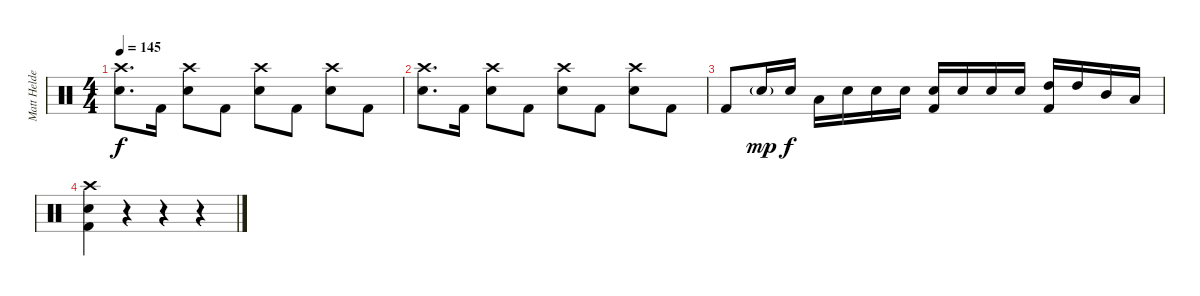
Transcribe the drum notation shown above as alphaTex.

\track ("Matt Helders (Percussion)" "Matt Helde") {instrument percussion}
\staff {score}
\articulation defaults
\ts (4 4)
\tempo 145
\clef neutral
\ks c
("Crash high (hit)" "Snare (hit) 2").8{d dy f} "Kick (hit) 2".16 ("Crash high (hit)" "Snare (hit) 2").8 "Kick (hit) 2".8 ("Crash high (hit)" "Snare (hit) 2").8 "Kick (hit) 2".8 ("Crash high (hit)" "Snare (hit) 2").8 "Kick (hit) 2".8 |
("Crash high (hit)" "Snare (hit) 2").8{d} "Kick (hit) 2".16 ("Crash high (hit)" "Snare (hit) 2").8 "Kick (hit) 2".8 ("Crash high (hit)" "Snare (hit) 2").8 "Kick (hit) 2".8 ("Crash high (hit)" "Snare (hit) 2").8 "Kick (hit) 2".8 |
"Kick (hit) 2".8 "Snare (hit) 2"{g}.16{dy mp} "Snare (hit) 2".16{dy f} "Low Tom (hit)".16 "Snare (hit) 2".16 "Snare (hit) 2".16 "Snare (hit) 2".16 ("Snare (hit) 2" "Kick (hit) 2").16 "Snare (hit) 2".16 "Snare (hit) 2".16 "Snare (hit) 2".16 ("High Tom (hit)" "Kick (hit) 2").16 "High Tom (hit)".16 "Mid Tom (hit)".16 "Low Tom (hit)".16 |
("Crash high (hit)" "Snare (hit) 2" "Kick (hit) 2").4 r.4 r.4 r.4
